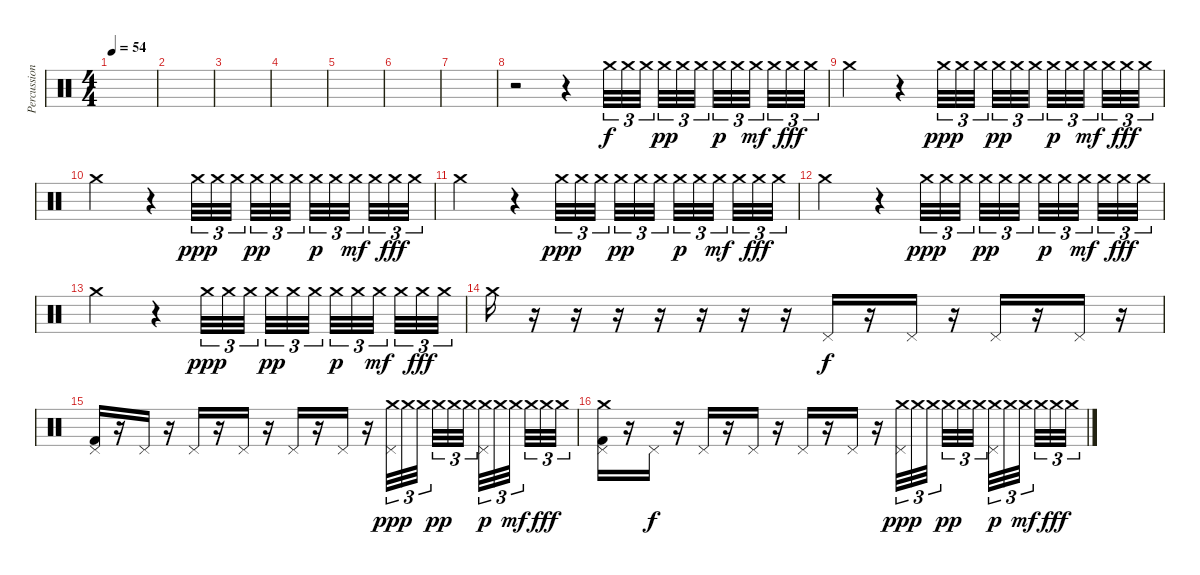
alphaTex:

\track ("Percussion" "Percussion") {instrument percussion}
\staff {score}
\articulation defaults
\ts (4 4)
\tempo 54
\clef neutral
\ks c
|
|
|
|
|
|
|
r.2 r.4 "Crash medium (hit)".32{tu (3 2)} "Crash medium (hit)".32{tu (3 2)} "Crash medium (hit)".32{tu (3 2)} "Crash medium (hit)".32{tu (3 2) dy pp} "Crash medium (hit)".32{tu (3 2)} "Crash medium (hit)".32{tu (3 2)} "Crash medium (hit)".32{tu (3 2) dy p} "Crash medium (hit)".32{tu (3 2)} "Crash medium (hit)".32{tu (3 2) dy mf} "Crash medium (hit)".32{tu (3 2)} "Crash medium (hit)".32{tu (3 2) dy fff} "Crash medium (hit)".32{tu (3 2)} |
"Crash medium (hit)".2 r.4 "Crash medium (hit)".32{tu (3 2) dy ppp} "Crash medium (hit)".32{tu (3 2)} "Crash medium (hit)".32{tu (3 2)} "Crash medium (hit)".32{tu (3 2) dy pp} "Crash medium (hit)".32{tu (3 2)} "Crash medium (hit)".32{tu (3 2)} "Crash medium (hit)".32{tu (3 2) dy p} "Crash medium (hit)".32{tu (3 2)} "Crash medium (hit)".32{tu (3 2) dy mf} "Crash medium (hit)".32{tu (3 2)} "Crash medium (hit)".32{tu (3 2) dy fff} "Crash medium (hit)".32{tu (3 2)} |
"Crash medium (hit)".2 r.4 "Crash medium (hit)".32{tu (3 2) dy ppp} "Crash medium (hit)".32{tu (3 2)} "Crash medium (hit)".32{tu (3 2)} "Crash medium (hit)".32{tu (3 2) dy pp} "Crash medium (hit)".32{tu (3 2)} "Crash medium (hit)".32{tu (3 2)} "Crash medium (hit)".32{tu (3 2) dy p} "Crash medium (hit)".32{tu (3 2)} "Crash medium (hit)".32{tu (3 2) dy mf} "Crash medium (hit)".32{tu (3 2)} "Crash medium (hit)".32{tu (3 2) dy fff} "Crash medium (hit)".32{tu (3 2)} |
"Crash medium (hit)".2 r.4 "Crash medium (hit)".32{tu (3 2) dy ppp} "Crash medium (hit)".32{tu (3 2)} "Crash medium (hit)".32{tu (3 2)} "Crash medium (hit)".32{tu (3 2) dy pp} "Crash medium (hit)".32{tu (3 2)} "Crash medium (hit)".32{tu (3 2)} "Crash medium (hit)".32{tu (3 2) dy p} "Crash medium (hit)".32{tu (3 2)} "Crash medium (hit)".32{tu (3 2) dy mf} "Crash medium (hit)".32{tu (3 2)} "Crash medium (hit)".32{tu (3 2) dy fff} "Crash medium (hit)".32{tu (3 2)} |
"Crash medium (hit)".2 r.4 "Crash medium (hit)".32{tu (3 2) dy ppp} "Crash medium (hit)".32{tu (3 2)} "Crash medium (hit)".32{tu (3 2)} "Crash medium (hit)".32{tu (3 2) dy pp} "Crash medium (hit)".32{tu (3 2)} "Crash medium (hit)".32{tu (3 2)} "Crash medium (hit)".32{tu (3 2) dy p} "Crash medium (hit)".32{tu (3 2)} "Crash medium (hit)".32{tu (3 2) dy mf} "Crash medium (hit)".32{tu (3 2)} "Crash medium (hit)".32{tu (3 2) dy fff} "Crash medium (hit)".32{tu (3 2)} |
"Crash medium (hit)".2 r.4 "Crash medium (hit)".32{tu (3 2) dy ppp} "Crash medium (hit)".32{tu (3 2)} "Crash medium (hit)".32{tu (3 2)} "Crash medium (hit)".32{tu (3 2) dy pp} "Crash medium (hit)".32{tu (3 2)} "Crash medium (hit)".32{tu (3 2)} "Crash medium (hit)".32{tu (3 2) dy p} "Crash medium (hit)".32{tu (3 2)} "Crash medium (hit)".32{tu (3 2) dy mf} "Crash medium (hit)".32{tu (3 2)} "Crash medium (hit)".32{tu (3 2) dy fff} "Crash medium (hit)".32{tu (3 2)} |
"Crash medium (hit)".16 r.16 r.16 r.16 r.16 r.16 r.16 r.16 "Pedal Hi-Hat (hit)".16{dy f} r.16 "Pedal Hi-Hat (hit)".16 r.16 "Pedal Hi-Hat (hit)".16 r.16 "Pedal Hi-Hat (hit)".16 r.16 |
("Pedal Hi-Hat (hit)" "Kick (hit) 2").16 r.16 "Pedal Hi-Hat (hit)".16 r.16 "Pedal Hi-Hat (hit)".16 r.16 "Pedal Hi-Hat (hit)".16 r.16 "Pedal Hi-Hat (hit)".16 r.16 "Pedal Hi-Hat (hit)".16 r.16 ("Crash medium (hit)" "Pedal Hi-Hat (hit)").32{tu (3 2) dy ppp} "Crash medium (hit)".32{tu (3 2)} "Crash medium (hit)".32{tu (3 2)} "Crash medium (hit)".32{tu (3 2) dy pp} "Crash medium (hit)".32{tu (3 2)} "Crash medium (hit)".32{tu (3 2)} ("Crash medium (hit)" "Pedal Hi-Hat (hit)").32{tu (3 2) dy p} "Crash medium (hit)".32{tu (3 2)} "Crash medium (hit)".32{tu (3 2) dy mf} "Crash medium (hit)".32{tu (3 2)} "Crash medium (hit)".32{tu (3 2) dy fff} "Crash medium (hit)".32{tu (3 2)} |
("Crash medium (hit)" "Pedal Hi-Hat (hit)" "Kick (hit) 2").16 r.16 "Pedal Hi-Hat (hit)".16{dy f} r.16 "Pedal Hi-Hat (hit)".16 r.16 "Pedal Hi-Hat (hit)".16 r.16 "Pedal Hi-Hat (hit)".16 r.16 "Pedal Hi-Hat (hit)".16 r.16 ("Crash medium (hit)" "Pedal Hi-Hat (hit)").32{tu (3 2) dy ppp} "Crash medium (hit)".32{tu (3 2)} "Crash medium (hit)".32{tu (3 2)} "Crash medium (hit)".32{tu (3 2) dy pp} "Crash medium (hit)".32{tu (3 2)} "Crash medium (hit)".32{tu (3 2)} ("Crash medium (hit)" "Pedal Hi-Hat (hit)").32{tu (3 2) dy p} "Crash medium (hit)".32{tu (3 2)} "Crash medium (hit)".32{tu (3 2) dy mf} "Crash medium (hit)".32{tu (3 2)} "Crash medium (hit)".32{tu (3 2) dy fff} "Crash medium (hit)".32{tu (3 2)}
